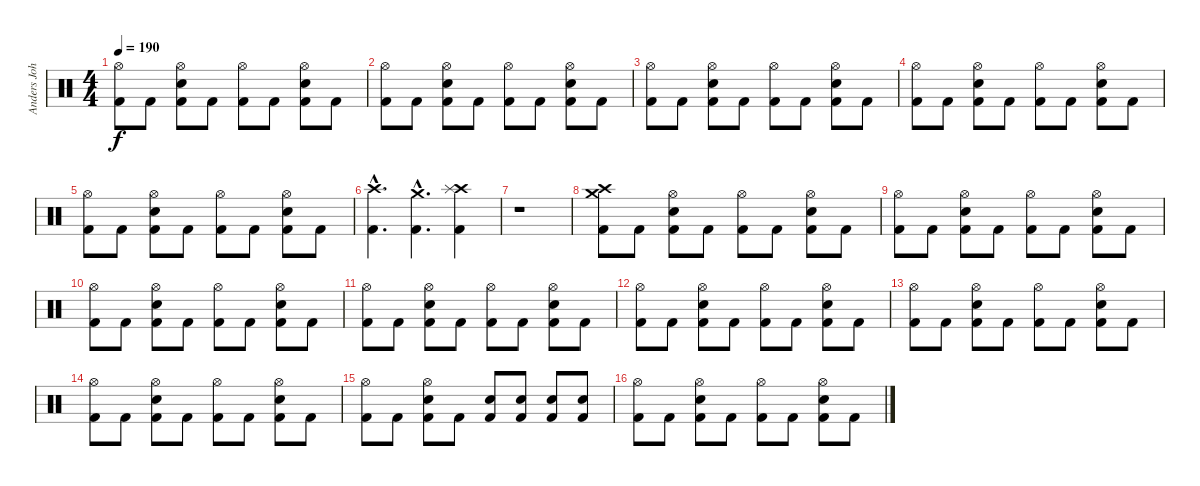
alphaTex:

\track ("Anders Johansson Drums" "Anders Joh") {instrument percussion}
\staff {score}
\articulation defaults
\ts (4 4)
\tempo 190
\clef neutral
\ks c
("Hi-Hat (open)" "Kick (hit) 2").8{dy f} "Kick (hit) 2".8 ("Hi-Hat (open)" "Snare (hit) 2" "Kick (hit) 2").8 "Kick (hit) 2".8 ("Hi-Hat (open)" "Kick (hit) 2").8 "Kick (hit) 2".8 ("Hi-Hat (open)" "Snare (hit) 2" "Kick (hit) 2").8 "Kick (hit) 2".8 |
("Hi-Hat (open)" "Kick (hit) 2").8 "Kick (hit) 2".8 ("Hi-Hat (open)" "Snare (hit) 2" "Kick (hit) 2").8 "Kick (hit) 2".8 ("Hi-Hat (open)" "Kick (hit) 2").8 "Kick (hit) 2".8 ("Hi-Hat (open)" "Snare (hit) 2" "Kick (hit) 2").8 "Kick (hit) 2".8 |
("Hi-Hat (open)" "Kick (hit) 2").8 "Kick (hit) 2".8 ("Hi-Hat (open)" "Snare (hit) 2" "Kick (hit) 2").8 "Kick (hit) 2".8 ("Hi-Hat (open)" "Kick (hit) 2").8 "Kick (hit) 2".8 ("Hi-Hat (open)" "Snare (hit) 2" "Kick (hit) 2").8 "Kick (hit) 2".8 |
("Hi-Hat (open)" "Kick (hit) 2").8 "Kick (hit) 2".8 ("Hi-Hat (open)" "Snare (hit) 2" "Kick (hit) 2").8 "Kick (hit) 2".8 ("Hi-Hat (open)" "Kick (hit) 2").8 "Kick (hit) 2".8 ("Hi-Hat (open)" "Snare (hit) 2" "Kick (hit) 2").8 "Kick (hit) 2".8 |
("Hi-Hat (open)" "Kick (hit) 2").8 "Kick (hit) 2".8 ("Hi-Hat (open)" "Snare (hit) 2" "Kick (hit) 2").8 "Kick (hit) 2".8 ("Hi-Hat (open)" "Kick (hit) 2").8 "Kick (hit) 2".8 ("Hi-Hat (open)" "Snare (hit) 2" "Kick (hit) 2").8 "Kick (hit) 2".8 |
("Crash high (hit)"{hac} "Kick (hit) 2"{hac}).4{d} ("Crash medium (hit)"{hac} "Kick (hit) 2"{hac}).4{d} ("Crash high (hit)" "Splash (hit)" "Kick (hit) 2").4 |
r.1 |
("Crash high (hit)" "Crash medium (hit)" "Kick (hit) 2").8 "Kick (hit) 2".8 ("Hi-Hat (open)" "Snare (hit) 2" "Kick (hit) 2").8 "Kick (hit) 2".8 ("Hi-Hat (open)" "Kick (hit) 2").8 "Kick (hit) 2".8 ("Hi-Hat (open)" "Snare (hit) 2" "Kick (hit) 2").8 "Kick (hit) 2".8 |
("Hi-Hat (open)" "Kick (hit) 2").8 "Kick (hit) 2".8 ("Hi-Hat (open)" "Snare (hit) 2" "Kick (hit) 2").8 "Kick (hit) 2".8 ("Hi-Hat (open)" "Kick (hit) 2").8 "Kick (hit) 2".8 ("Hi-Hat (open)" "Snare (hit) 2" "Kick (hit) 2").8 "Kick (hit) 2".8 |
("Hi-Hat (open)" "Kick (hit) 2").8 "Kick (hit) 2".8 ("Hi-Hat (open)" "Snare (hit) 2" "Kick (hit) 2").8 "Kick (hit) 2".8 ("Hi-Hat (open)" "Kick (hit) 2").8 "Kick (hit) 2".8 ("Hi-Hat (open)" "Snare (hit) 2" "Kick (hit) 2").8 "Kick (hit) 2".8 |
("Hi-Hat (open)" "Kick (hit) 2").8 "Kick (hit) 2".8 ("Hi-Hat (open)" "Snare (hit) 2" "Kick (hit) 2").8 "Kick (hit) 2".8 ("Hi-Hat (open)" "Kick (hit) 2").8 "Kick (hit) 2".8 ("Hi-Hat (open)" "Snare (hit) 2" "Kick (hit) 2").8 "Kick (hit) 2".8 |
("Hi-Hat (open)" "Kick (hit) 2").8 "Kick (hit) 2".8 ("Hi-Hat (open)" "Snare (hit) 2" "Kick (hit) 2").8 "Kick (hit) 2".8 ("Hi-Hat (open)" "Kick (hit) 2").8 "Kick (hit) 2".8 ("Hi-Hat (open)" "Snare (hit) 2" "Kick (hit) 2").8 "Kick (hit) 2".8 |
("Hi-Hat (open)" "Kick (hit) 2").8 "Kick (hit) 2".8 ("Hi-Hat (open)" "Snare (hit) 2" "Kick (hit) 2").8 "Kick (hit) 2".8 ("Hi-Hat (open)" "Kick (hit) 2").8 "Kick (hit) 2".8 ("Hi-Hat (open)" "Snare (hit) 2" "Kick (hit) 2").8 "Kick (hit) 2".8 |
("Hi-Hat (open)" "Kick (hit) 2").8 "Kick (hit) 2".8 ("Hi-Hat (open)" "Snare (hit) 2" "Kick (hit) 2").8 "Kick (hit) 2".8 ("Hi-Hat (open)" "Kick (hit) 2").8 "Kick (hit) 2".8 ("Hi-Hat (open)" "Snare (hit) 2" "Kick (hit) 2").8 "Kick (hit) 2".8 |
("Hi-Hat (open)" "Kick (hit) 2").8 "Kick (hit) 2".8 ("Hi-Hat (open)" "Snare (hit) 2" "Kick (hit) 2").8 "Kick (hit) 2".8 ("Snare (hit) 2" "Kick (hit) 2").8 ("Snare (hit) 2" "Kick (hit) 2").8 ("Snare (hit) 2" "Kick (hit) 2").8 ("Snare (hit) 2" "Kick (hit) 2").8 |
("Hi-Hat (open)" "Kick (hit) 2").8 "Kick (hit) 2".8 ("Hi-Hat (open)" "Snare (hit) 2" "Kick (hit) 2").8 "Kick (hit) 2".8 ("Hi-Hat (open)" "Kick (hit) 2").8 "Kick (hit) 2".8 ("Hi-Hat (open)" "Snare (hit) 2" "Kick (hit) 2").8 "Kick (hit) 2".8
